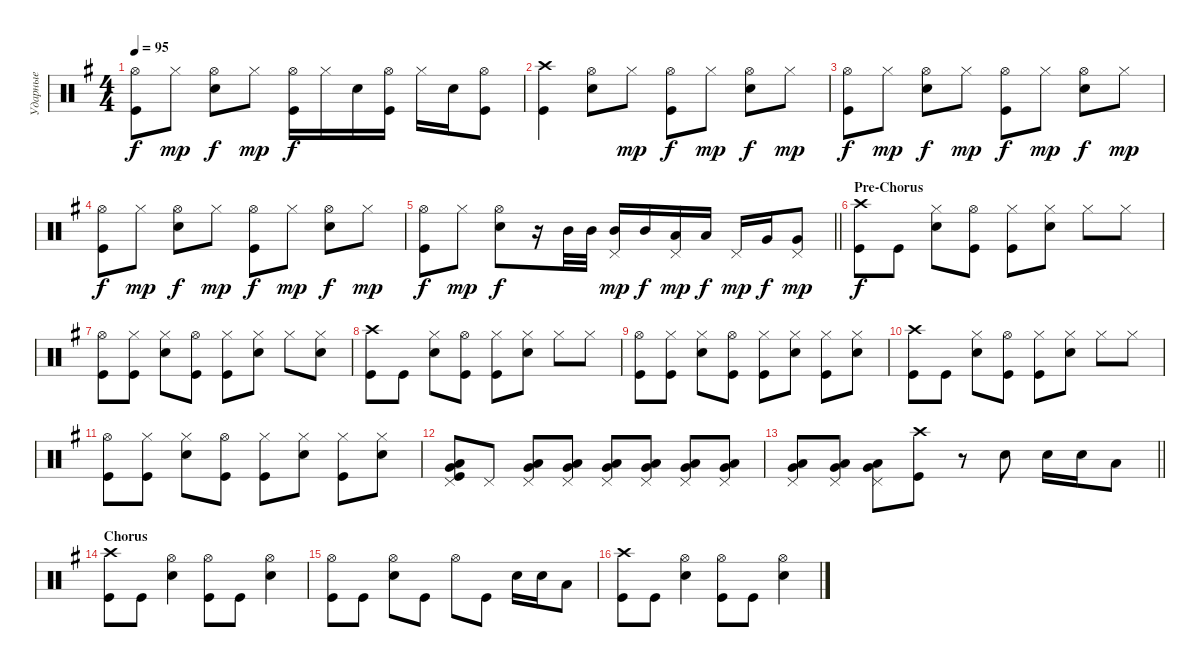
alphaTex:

\track ("Ударные" "Ударные") {instrument percussion}
\staff {score}
\articulation defaults
\ts (4 4)
\tempo 95
\clef neutral
\ks eminor
("Kick (hit)" "Hi-Hat (open)").8{dy f} "Hi-Hat (closed)".8{dy mp} ("Snare (hit) 2" "Hi-Hat (open)").8{dy f} "Hi-Hat (closed)".8{dy mp} ("Kick (hit)" "Hi-Hat (open)").16{dy f} "Hi-Hat (closed)".16 "Snare (hit) 2".16 ("Kick (hit)" "Hi-Hat (open)").16 "Hi-Hat (closed)".16 "Snare (hit) 2".16 ("Kick (hit)" "Hi-Hat (open)").8 |
("Kick (hit)" "Crash high (hit)").4 ("Snare (hit) 2" "Hi-Hat (open)").8 "Hi-Hat (closed)".8{dy mp} ("Kick (hit)" "Hi-Hat (open)").8{dy f} "Hi-Hat (closed)".8{dy mp} ("Snare (hit) 2" "Hi-Hat (open)").8{dy f} "Hi-Hat (closed)".8{dy mp} |
("Kick (hit)" "Hi-Hat (open)").8{dy f} "Hi-Hat (closed)".8{dy mp} ("Snare (hit) 2" "Hi-Hat (open)").8{dy f} "Hi-Hat (closed)".8{dy mp} ("Kick (hit)" "Hi-Hat (open)").8{dy f} "Hi-Hat (closed)".8{dy mp} ("Snare (hit) 2" "Hi-Hat (open)").8{dy f} "Hi-Hat (closed)".8{dy mp} |
("Kick (hit)" "Hi-Hat (open)").8{dy f} "Hi-Hat (closed)".8{dy mp} ("Snare (hit) 2" "Hi-Hat (open)").8{dy f} "Hi-Hat (closed)".8{dy mp} ("Kick (hit)" "Hi-Hat (open)").8{dy f} "Hi-Hat (closed)".8{dy mp} ("Snare (hit) 2" "Hi-Hat (open)").8{dy f} "Hi-Hat (closed)".8{dy mp} |
\barLineRight lightlight
("Kick (hit)" "Hi-Hat (open)").8{dy f} "Hi-Hat (closed)".8{dy mp} ("Snare (hit) 2" "Hi-Hat (open)").8{dy f} r.16 "Mid Tom (hit)".32 "Mid Tom (hit)".32 ("Mid Tom (hit)" "Pedal Hi-Hat (hit)").16{dy mp} "Mid Tom (hit)".16{dy f} ("Low Tom (hit)" "Pedal Hi-Hat (hit)").16{dy mp} "Low Tom (hit)".16{dy f} "Pedal Hi-Hat (hit)".16{dy mp} "Very Low Tom (hit)".16{dy f} ("Very Low Tom (hit)" "Pedal Hi-Hat (hit)").8{dy mp} |
\section ("" "Pre-Chorus")
("Kick (hit)" "Crash high (hit)").8{dy f} "Kick (hit)".8 ("Snare (hit) 2" "Hi-Hat (closed)").8 ("Kick (hit)" "Hi-Hat (open)").8 ("Kick (hit)" "Hi-Hat (closed)").8 ("Snare (hit) 2" "Hi-Hat (closed)").8 "Hi-Hat (closed)".8 "Hi-Hat (closed)".8 |
("Kick (hit)" "Hi-Hat (open)").8 ("Kick (hit)" "Hi-Hat (closed)").8 ("Snare (hit) 2" "Hi-Hat (closed)").8 ("Kick (hit)" "Hi-Hat (open)").8 ("Kick (hit)" "Hi-Hat (closed)").8 ("Snare (hit) 2" "Hi-Hat (closed)").8 "Hi-Hat (closed)".8 ("Hi-Hat (closed)" "Snare (hit) 2").8 |
("Kick (hit)" "Crash high (hit)").8 "Kick (hit)".8 ("Snare (hit) 2" "Hi-Hat (closed)").8 ("Kick (hit)" "Hi-Hat (open)").8 ("Kick (hit)" "Hi-Hat (closed)").8 ("Snare (hit) 2" "Hi-Hat (closed)").8 "Hi-Hat (closed)".8 "Hi-Hat (closed)".8 |
("Kick (hit)" "Hi-Hat (open)").8 ("Kick (hit)" "Hi-Hat (closed)").8 ("Snare (hit) 2" "Hi-Hat (closed)").8 ("Kick (hit)" "Hi-Hat (open)").8 ("Kick (hit)" "Hi-Hat (closed)").8 ("Snare (hit) 2" "Hi-Hat (closed)").8 ("Hi-Hat (closed)" "Kick (hit)").8 ("Hi-Hat (closed)" "Snare (hit) 2").8 |
("Kick (hit)" "Crash high (hit)").8 "Kick (hit)".8 ("Snare (hit) 2" "Hi-Hat (closed)").8 ("Kick (hit)" "Hi-Hat (open)").8 ("Kick (hit)" "Hi-Hat (closed)").8 ("Snare (hit) 2" "Hi-Hat (closed)").8 "Hi-Hat (closed)".8 "Hi-Hat (closed)".8 |
("Kick (hit)" "Hi-Hat (open)").8 ("Kick (hit)" "Hi-Hat (closed)").8 ("Snare (hit) 2" "Hi-Hat (closed)").8 ("Kick (hit)" "Hi-Hat (open)").8 ("Kick (hit)" "Hi-Hat (closed)").8 ("Snare (hit) 2" "Hi-Hat (closed)").8 ("Hi-Hat (closed)" "Kick (hit)").8 ("Hi-Hat (closed)" "Snare (hit) 2").8 |
("Kick (hit)" "Very Low Tom (hit)" "Low Tom (hit)" "Pedal Hi-Hat (hit)").8{bd 120} "Pedal Hi-Hat (hit)".8 ("Low Tom (hit)" "Very Low Tom (hit)" "Pedal Hi-Hat (hit)").8{bd 120} ("Low Tom (hit)" "Very Low Tom (hit)" "Pedal Hi-Hat (hit)").8{bd 120} ("Low Tom (hit)" "Very Low Tom (hit)" "Pedal Hi-Hat (hit)").8{bd 120} ("Low Tom (hit)" "Very Low Tom (hit)" "Pedal Hi-Hat (hit)").8{bd 120} ("Low Tom (hit)" "Very Low Tom (hit)" "Pedal Hi-Hat (hit)").8{bd 120} ("Low Tom (hit)" "Very Low Tom (hit)" "Pedal Hi-Hat (hit)").8{bd 120} |
\barLineRight lightlight
("Low Tom (hit)" "Very Low Tom (hit)" "Pedal Hi-Hat (hit)").8{bd 120} ("Low Tom (hit)" "Very Low Tom (hit)" "Pedal Hi-Hat (hit)").8{bd 120} ("Low Tom (hit)" "Very Low Tom (hit)" "Pedal Hi-Hat (hit)").8{bd 120} ("Kick (hit)" "Crash high (hit)").8 r.8 "Snare (hit) 2".8 "Snare (hit) 2".16 "Snare (hit) 2".16 "Low Tom (hit)".8 |
\section ("" "Chorus")
("Kick (hit)" "Crash high (hit)").8 "Kick (hit)".8 ("Snare (hit) 2" "Hi-Hat (open)").4 ("Kick (hit)" "Hi-Hat (open)").8 "Kick (hit)".8 ("Snare (hit) 2" "Hi-Hat (open)").4 |
("Kick (hit)" "Hi-Hat (open)").8 "Kick (hit)".8 ("Snare (hit) 2" "Hi-Hat (open)").8 "Kick (hit)".8 "Hi-Hat (open)".8 "Kick (hit)".8 "Snare (hit) 2".16 "Snare (hit) 2".16 "Low Tom (hit)".8 |
("Kick (hit)" "Crash high (hit)").8 "Kick (hit)".8 ("Snare (hit) 2" "Hi-Hat (open)").4 ("Kick (hit)" "Hi-Hat (open)").8 "Kick (hit)".8 ("Snare (hit) 2" "Hi-Hat (open)").4
